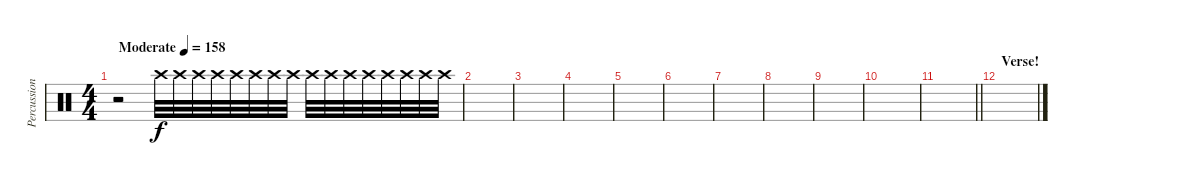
\track ("Percussion" "Percussion") {instrument percussion}
\staff {score}
\articulation defaults
\ts (4 4)
\tempo (158 "Moderate")
\clef neutral
\ks c
r.2{dy f volume 2} "Crash high (hit)".32{volume 13} "Crash high (hit)".32 "Crash high (hit)".32 "Crash high (hit)".32 "Crash high (hit)".32 "Crash high (hit)".32 "Crash high (hit)".32 "Crash high (hit)".32 "Crash high (hit)".32 "Crash high (hit)".32 "Crash high (hit)".32 "Crash high (hit)".32 "Crash high (hit)".32 "Crash high (hit)".32 "Crash high (hit)".32 "Crash high (hit)".32 |
|
|
|
|
|
|
|
|
|
\barLineRight lightlight
|
\section ("" "Verse!")
